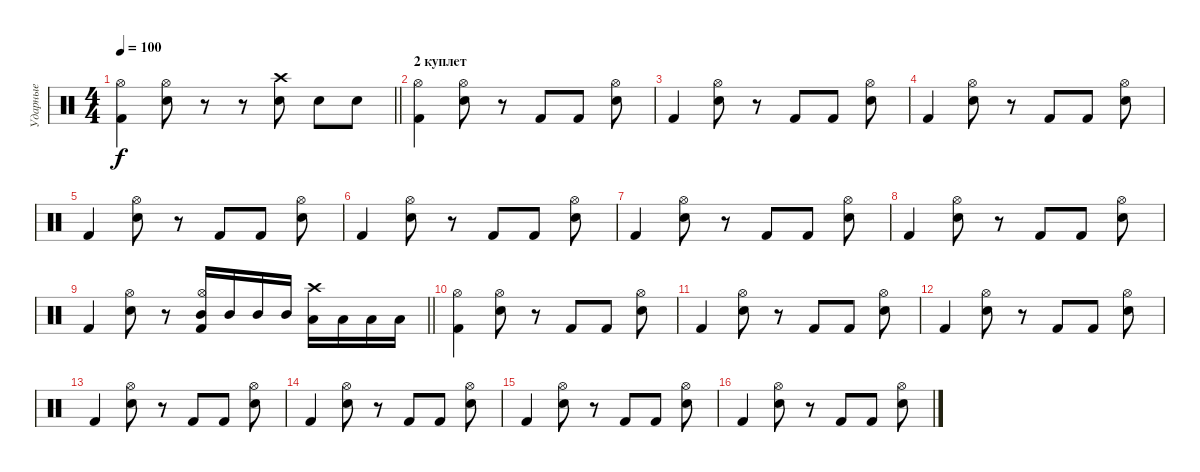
\track ("Ударные" "Ударные") {instrument percussion}
\staff {score}
\articulation defaults
\ts (4 4)
\tempo 100
\clef neutral
\barLineRight lightlight
\ks c
("Kick (hit) 2" "Hi-Hat (open)").4{dy f} ("Snare (hit) 2" "Hi-Hat (open)").8 r.8 r.8 ("Snare (hit) 2" "Crash high (hit)").8 "Snare (hit) 2".8 "Snare (hit) 2".8 |
\section ("" "2 куплет")
("Kick (hit) 2" "Hi-Hat (open)").4 ("Snare (hit) 2" "Hi-Hat (open)").8 r.8 "Kick (hit) 2".8 "Kick (hit) 2".8 ("Snare (hit) 2" "Hi-Hat (open)").8 |
"Kick (hit) 2".4 ("Snare (hit) 2" "Hi-Hat (open)").8 r.8 "Kick (hit) 2".8 "Kick (hit) 2".8 ("Snare (hit) 2" "Hi-Hat (open)").8 |
"Kick (hit) 2".4 ("Snare (hit) 2" "Hi-Hat (open)").8 r.8 "Kick (hit) 2".8 "Kick (hit) 2".8 ("Snare (hit) 2" "Hi-Hat (open)").8 |
"Kick (hit) 2".4 ("Snare (hit) 2" "Hi-Hat (open)").8 r.8 "Kick (hit) 2".8 "Kick (hit) 2".8 ("Snare (hit) 2" "Hi-Hat (open)").8 |
"Kick (hit) 2".4 ("Snare (hit) 2" "Hi-Hat (open)").8 r.8 "Kick (hit) 2".8 "Kick (hit) 2".8 ("Snare (hit) 2" "Hi-Hat (open)").8 |
"Kick (hit) 2".4 ("Snare (hit) 2" "Hi-Hat (open)").8 r.8 "Kick (hit) 2".8 "Kick (hit) 2".8 ("Snare (hit) 2" "Hi-Hat (open)").8 |
"Kick (hit) 2".4 ("Snare (hit) 2" "Hi-Hat (open)").8 r.8 "Kick (hit) 2".8 "Kick (hit) 2".8 ("Snare (hit) 2" "Hi-Hat (open)").8 |
\barLineRight lightlight "Kick (hit) 2".4
("Snare (hit) 2" "Hi-Hat (open)").8 r.8 ("Mid Tom (hit)" "Kick (hit) 2" "Hi-Hat (open)").16 "Mid Tom (hit)".16 "Mid Tom (hit)".16 "Mid Tom (hit)".16 ("Low Tom (hit)" "Crash high (hit)").16 "Low Tom (hit)".16 "Low Tom (hit)".16 "Low Tom (hit)".16 |
("Kick (hit) 2" "Hi-Hat (open)").4 ("Snare (hit) 2" "Hi-Hat (open)").8 r.8 "Kick (hit) 2".8 "Kick (hit) 2".8 ("Snare (hit) 2" "Hi-Hat (open)").8 |
"Kick (hit) 2".4 ("Snare (hit) 2" "Hi-Hat (open)").8 r.8 "Kick (hit) 2".8 "Kick (hit) 2".8 ("Snare (hit) 2" "Hi-Hat (open)").8 |
"Kick (hit) 2".4 ("Snare (hit) 2" "Hi-Hat (open)").8 r.8 "Kick (hit) 2".8 "Kick (hit) 2".8 ("Snare (hit) 2" "Hi-Hat (open)").8 |
"Kick (hit) 2".4 ("Snare (hit) 2" "Hi-Hat (open)").8 r.8 "Kick (hit) 2".8 "Kick (hit) 2".8 ("Snare (hit) 2" "Hi-Hat (open)").8 |
"Kick (hit) 2".4 ("Snare (hit) 2" "Hi-Hat (open)").8 r.8 "Kick (hit) 2".8 "Kick (hit) 2".8 ("Snare (hit) 2" "Hi-Hat (open)").8 |
"Kick (hit) 2".4 ("Snare (hit) 2" "Hi-Hat (open)").8 r.8 "Kick (hit) 2".8 "Kick (hit) 2".8 ("Snare (hit) 2" "Hi-Hat (open)").8 |
"Kick (hit) 2".4 ("Snare (hit) 2" "Hi-Hat (open)").8 r.8 "Kick (hit) 2".8 "Kick (hit) 2".8 ("Snare (hit) 2" "Hi-Hat (open)").8
